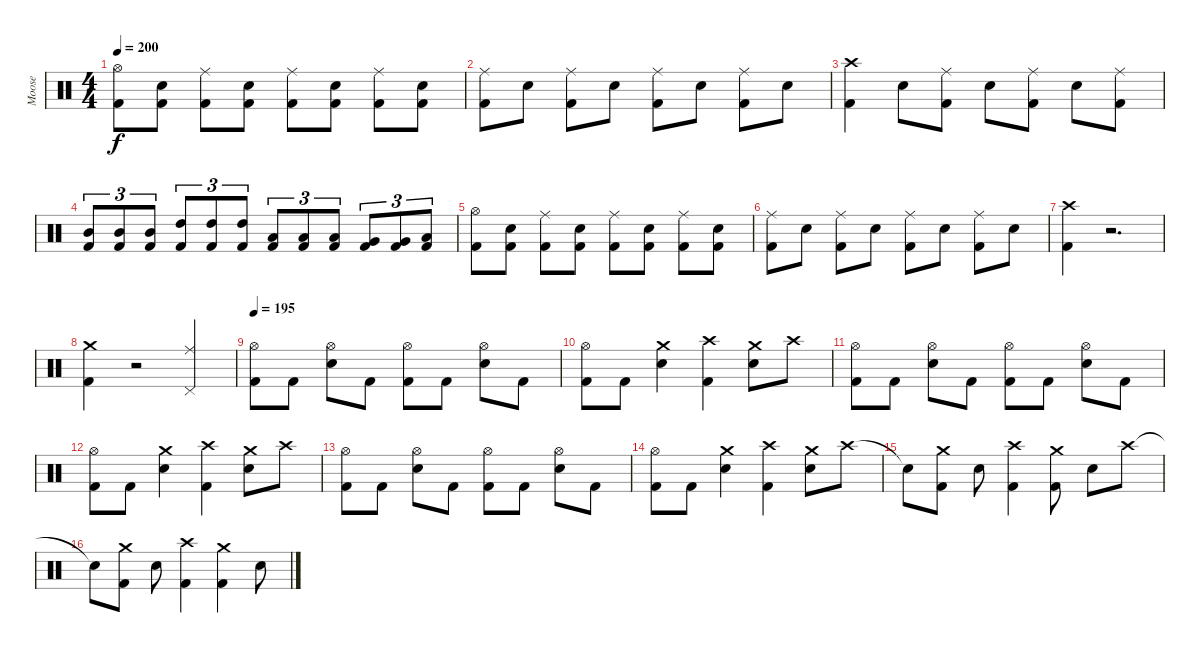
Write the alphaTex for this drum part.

\track ("Moose" "Moose") {instrument percussion}
\staff {score}
\articulation defaults
\ts (4 4)
\tempo 200
\clef neutral
\ks c
("Hi-Hat (open)" "Kick (hit) 2").8{dy f} ("Snare (hit) 2" "Kick (hit) 2").8 ("Ride (middle)" "Kick (hit) 2").8 ("Snare (hit) 2" "Kick (hit) 2").8 ("Ride (middle)" "Kick (hit) 2").8 ("Snare (hit) 2" "Kick (hit) 2").8 ("Ride (middle)" "Kick (hit) 2").8 ("Snare (hit) 2" "Kick (hit) 2").8 |
("Ride (middle)" "Kick (hit) 2").8 "Snare (hit) 2".8 ("Ride (middle)" "Kick (hit) 2").8 "Snare (hit) 2".8 ("Ride (middle)" "Kick (hit) 2").8 "Snare (hit) 2".8 ("Ride (middle)" "Kick (hit) 2").8 "Snare (hit) 2".8 |
("Crash high (hit)" "Kick (hit) 2").4 "Snare (hit) 2".8 ("Ride (middle)" "Kick (hit) 2").8 "Snare (hit) 2".8 ("Ride (middle)" "Kick (hit) 2").8 "Snare (hit) 2".8 ("Ride (middle)" "Kick (hit) 2").8 |
("Mid Tom (hit)" "Kick (hit) 2").8{tu (3 2)} ("Mid Tom (hit)" "Kick (hit) 2").8{tu (3 2)} ("Mid Tom (hit)" "Kick (hit) 2").8{tu (3 2)} ("High Tom (hit)" "Kick (hit) 2").8{tu (3 2)} ("High Tom (hit)" "Kick (hit) 2").8{tu (3 2)} ("High Tom (hit)" "Kick (hit) 2").8{tu (3 2)} ("Low Tom (hit)" "Kick (hit) 2").8{tu (3 2)} ("Low Tom (hit)" "Kick (hit) 2").8{tu (3 2)} ("Low Tom (hit)" "Kick (hit) 2").8{tu (3 2)} ("Very Low Tom (hit)" "Kick (hit) 2").8{tu (3 2)} ("Very Low Tom (hit)" "Kick (hit) 2").8{tu (3 2)} ("Low Floor Tom (hit)" "Kick (hit) 2").8{tu (3 2)} |
("Hi-Hat (open)" "Kick (hit) 2").8 ("Snare (hit) 2" "Kick (hit) 2").8 ("Ride (middle)" "Kick (hit) 2").8 ("Snare (hit) 2" "Kick (hit) 2").8 ("Ride (middle)" "Kick (hit) 2").8 ("Snare (hit) 2" "Kick (hit) 2").8 ("Ride (middle)" "Kick (hit) 2").8 ("Snare (hit) 2" "Kick (hit) 2").8 |
("Ride (middle)" "Kick (hit) 2").8 "Snare (hit) 2".8 ("Ride (middle)" "Kick (hit) 2").8 "Snare (hit) 2".8 ("Ride (middle)" "Kick (hit) 2").8 "Snare (hit) 2".8 ("Ride (middle)" "Kick (hit) 2").8 "Snare (hit) 2".8 |
("Crash high (hit)" "Kick (hit) 2").4 r.2{d} |
("Crash medium (hit)" "Kick (hit) 2").4 r.2 ("Ride (middle)" "Pedal Hi-Hat (hit)").4 |
\tempo 195
("Hi-Hat (open)" "Kick (hit) 2").8 "Kick (hit) 2".8 ("Hi-Hat (open)" "Snare (hit) 2").8 "Kick (hit) 2".8 ("Hi-Hat (open)" "Kick (hit) 2").8 "Kick (hit) 2".8 ("Hi-Hat (open)" "Snare (hit) 2").8 "Kick (hit) 2".8 |
("Hi-Hat (open)" "Kick (hit) 2").8 "Kick (hit) 2".8 ("Crash medium (hit)" "Snare (hit) 2").4 ("Crash high (hit)" "Kick (hit) 2").4 ("Crash medium (hit)" "Snare (hit) 2").8 "Crash high (hit)".8 |
("Hi-Hat (open)" "Kick (hit) 2").8 "Kick (hit) 2".8 ("Hi-Hat (open)" "Snare (hit) 2").8 "Kick (hit) 2".8 ("Hi-Hat (open)" "Kick (hit) 2").8 "Kick (hit) 2".8 ("Hi-Hat (open)" "Snare (hit) 2").8 "Kick (hit) 2".8 |
("Hi-Hat (open)" "Kick (hit) 2").8 "Kick (hit) 2".8 ("Crash medium (hit)" "Snare (hit) 2").4 ("Crash high (hit)" "Kick (hit) 2").4 ("Crash medium (hit)" "Snare (hit) 2").8 "Crash high (hit)".8 |
("Hi-Hat (open)" "Kick (hit) 2").8 "Kick (hit) 2".8 ("Hi-Hat (open)" "Snare (hit) 2").8 "Kick (hit) 2".8 ("Hi-Hat (open)" "Kick (hit) 2").8 "Kick (hit) 2".8 ("Hi-Hat (open)" "Snare (hit) 2").8 "Kick (hit) 2".8 |
("Hi-Hat (open)" "Kick (hit) 2").8 "Kick (hit) 2".8 ("Crash medium (hit)" "Snare (hit) 2").4 ("Crash high (hit)" "Kick (hit) 2").4 ("Crash medium (hit)" "Snare (hit) 2").8 "Crash high (hit)".8 |
"Snare (hit)"{t}.8 ("Crash medium (hit)" "Kick (hit) 2").8 "Snare (hit) 2".8 ("Crash high (hit)" "Kick (hit) 2").4 ("Crash medium (hit)" "Kick (hit) 2").8 "Snare (hit) 2".8 "Crash high (hit)".8 |
"Snare (hit)"{t}.8 ("Crash medium (hit)" "Kick (hit) 2").8 "Snare (hit) 2".8 ("Crash high (hit)" "Kick (hit) 2").4 ("Crash medium (hit)" "Kick (hit) 2").4 "Snare (hit) 2".8
